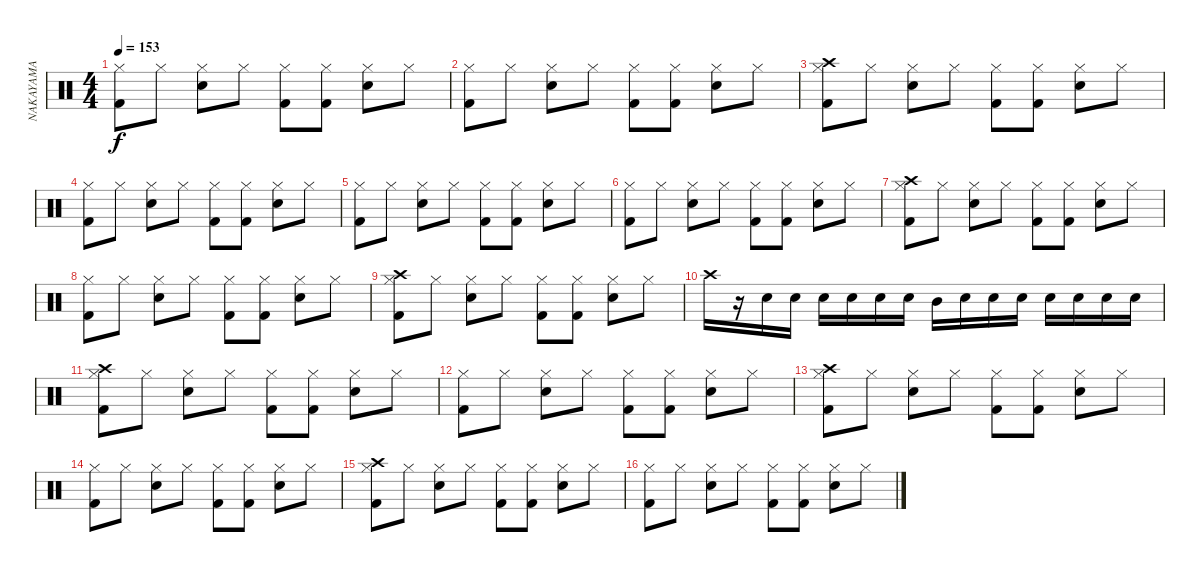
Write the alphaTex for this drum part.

\track ("NAKAYAMA" "NAKAYAMA") {instrument percussion}
\staff {score}
\articulation defaults
\ts (4 4)
\tempo 153
\clef neutral
\ks c
("Hi-Hat (closed)" "Kick (hit) 2").8{dy f} "Hi-Hat (closed)".8 ("Hi-Hat (closed)" "Snare (hit) 2").8 "Hi-Hat (closed)".8 ("Hi-Hat (closed)" "Kick (hit) 2").8 ("Hi-Hat (closed)" "Kick (hit) 2").8 ("Hi-Hat (closed)" "Snare (hit) 2").8 "Hi-Hat (closed)".8 |
("Hi-Hat (closed)" "Kick (hit) 2").8 "Hi-Hat (closed)".8 ("Hi-Hat (closed)" "Snare (hit) 2").8 "Hi-Hat (closed)".8 ("Hi-Hat (closed)" "Kick (hit) 2").8 ("Hi-Hat (closed)" "Kick (hit) 2").8 ("Hi-Hat (closed)" "Snare (hit) 2").8 "Hi-Hat (closed)".8 |
("Crash high (hit)" "Hi-Hat (closed)" "Kick (hit) 2").8 "Hi-Hat (closed)".8 ("Hi-Hat (closed)" "Snare (hit) 2").8 "Hi-Hat (closed)".8 ("Hi-Hat (closed)" "Kick (hit) 2").8 ("Hi-Hat (closed)" "Kick (hit) 2").8 ("Hi-Hat (closed)" "Snare (hit) 2").8 "Hi-Hat (closed)".8 |
("Hi-Hat (closed)" "Kick (hit) 2").8 "Hi-Hat (closed)".8 ("Hi-Hat (closed)" "Snare (hit) 2").8 "Hi-Hat (closed)".8 ("Hi-Hat (closed)" "Kick (hit) 2").8 ("Hi-Hat (closed)" "Kick (hit) 2").8 ("Hi-Hat (closed)" "Snare (hit) 2").8 "Hi-Hat (closed)".8 |
("Hi-Hat (closed)" "Kick (hit) 2").8 "Hi-Hat (closed)".8 ("Hi-Hat (closed)" "Snare (hit) 2").8 "Hi-Hat (closed)".8 ("Hi-Hat (closed)" "Kick (hit) 2").8 ("Hi-Hat (closed)" "Kick (hit) 2").8 ("Hi-Hat (closed)" "Snare (hit) 2").8 "Hi-Hat (closed)".8 |
("Hi-Hat (closed)" "Kick (hit) 2").8 "Hi-Hat (closed)".8 ("Hi-Hat (closed)" "Snare (hit) 2").8 "Hi-Hat (closed)".8 ("Hi-Hat (closed)" "Kick (hit) 2").8 ("Hi-Hat (closed)" "Kick (hit) 2").8 ("Hi-Hat (closed)" "Snare (hit) 2").8 "Hi-Hat (closed)".8 |
("Crash high (hit)" "Hi-Hat (closed)" "Kick (hit) 2").8 "Hi-Hat (closed)".8 ("Hi-Hat (closed)" "Snare (hit) 2").8 "Hi-Hat (closed)".8 ("Hi-Hat (closed)" "Kick (hit) 2").8 ("Hi-Hat (closed)" "Kick (hit) 2").8 ("Hi-Hat (closed)" "Snare (hit) 2").8 "Hi-Hat (closed)".8 |
("Hi-Hat (closed)" "Kick (hit) 2").8 "Hi-Hat (closed)".8 ("Hi-Hat (closed)" "Snare (hit) 2").8 "Hi-Hat (closed)".8 ("Hi-Hat (closed)" "Kick (hit) 2").8 ("Hi-Hat (closed)" "Kick (hit) 2").8 ("Hi-Hat (closed)" "Snare (hit) 2").8 "Hi-Hat (closed)".8 |
("Crash high (hit)" "Hi-Hat (closed)" "Kick (hit) 2").8 "Hi-Hat (closed)".8 ("Hi-Hat (closed)" "Snare (hit) 2").8 "Hi-Hat (closed)".8 ("Hi-Hat (closed)" "Kick (hit) 2").8 ("Hi-Hat (closed)" "Kick (hit) 2").8 ("Hi-Hat (closed)" "Snare (hit) 2").8 "Hi-Hat (closed)".8 |
"Crash high (hit)".16 r.16 "Snare (hit) 2".16 "Snare (hit) 2".16 "Snare (hit) 2".16 "Snare (hit) 2".16 "Snare (hit) 2".16 "Snare (hit) 2".16 "Mid Tom (hit)".16 "Snare (hit) 2".16 "Snare (hit) 2".16 "Snare (hit) 2".16 "Snare (hit) 2".16 "Snare (hit) 2".16 "Snare (hit) 2".16 "Snare (hit) 2".16 |
("Crash high (hit)" "Hi-Hat (closed)" "Kick (hit) 2").8 "Hi-Hat (closed)".8 ("Hi-Hat (closed)" "Snare (hit) 2").8 "Hi-Hat (closed)".8 ("Hi-Hat (closed)" "Kick (hit) 2").8 ("Hi-Hat (closed)" "Kick (hit) 2").8 ("Hi-Hat (closed)" "Snare (hit) 2").8 "Hi-Hat (closed)".8 |
("Hi-Hat (closed)" "Kick (hit) 2").8 "Hi-Hat (closed)".8 ("Hi-Hat (closed)" "Snare (hit) 2").8 "Hi-Hat (closed)".8 ("Hi-Hat (closed)" "Kick (hit) 2").8 ("Hi-Hat (closed)" "Kick (hit) 2").8 ("Hi-Hat (closed)" "Snare (hit) 2").8 "Hi-Hat (closed)".8 |
("Crash high (hit)" "Hi-Hat (closed)" "Kick (hit) 2").8 "Hi-Hat (closed)".8 ("Hi-Hat (closed)" "Snare (hit) 2").8 "Hi-Hat (closed)".8 ("Hi-Hat (closed)" "Kick (hit) 2").8 ("Hi-Hat (closed)" "Kick (hit) 2").8 ("Hi-Hat (closed)" "Snare (hit) 2").8 "Hi-Hat (closed)".8 |
("Hi-Hat (closed)" "Kick (hit) 2").8 "Hi-Hat (closed)".8 ("Hi-Hat (closed)" "Snare (hit) 2").8 "Hi-Hat (closed)".8 ("Hi-Hat (closed)" "Kick (hit) 2").8 ("Hi-Hat (closed)" "Kick (hit) 2").8 ("Hi-Hat (closed)" "Snare (hit) 2").8 "Hi-Hat (closed)".8 |
("Crash high (hit)" "Hi-Hat (closed)" "Kick (hit) 2").8 "Hi-Hat (closed)".8 ("Hi-Hat (closed)" "Snare (hit) 2").8 "Hi-Hat (closed)".8 ("Hi-Hat (closed)" "Kick (hit) 2").8 ("Hi-Hat (closed)" "Kick (hit) 2").8 ("Hi-Hat (closed)" "Snare (hit) 2").8 "Hi-Hat (closed)".8 |
("Hi-Hat (closed)" "Kick (hit) 2").8 "Hi-Hat (closed)".8 ("Hi-Hat (closed)" "Snare (hit) 2").8 "Hi-Hat (closed)".8 ("Hi-Hat (closed)" "Kick (hit) 2").8 ("Hi-Hat (closed)" "Kick (hit) 2").8 ("Hi-Hat (closed)" "Snare (hit) 2").8 "Hi-Hat (closed)".8
